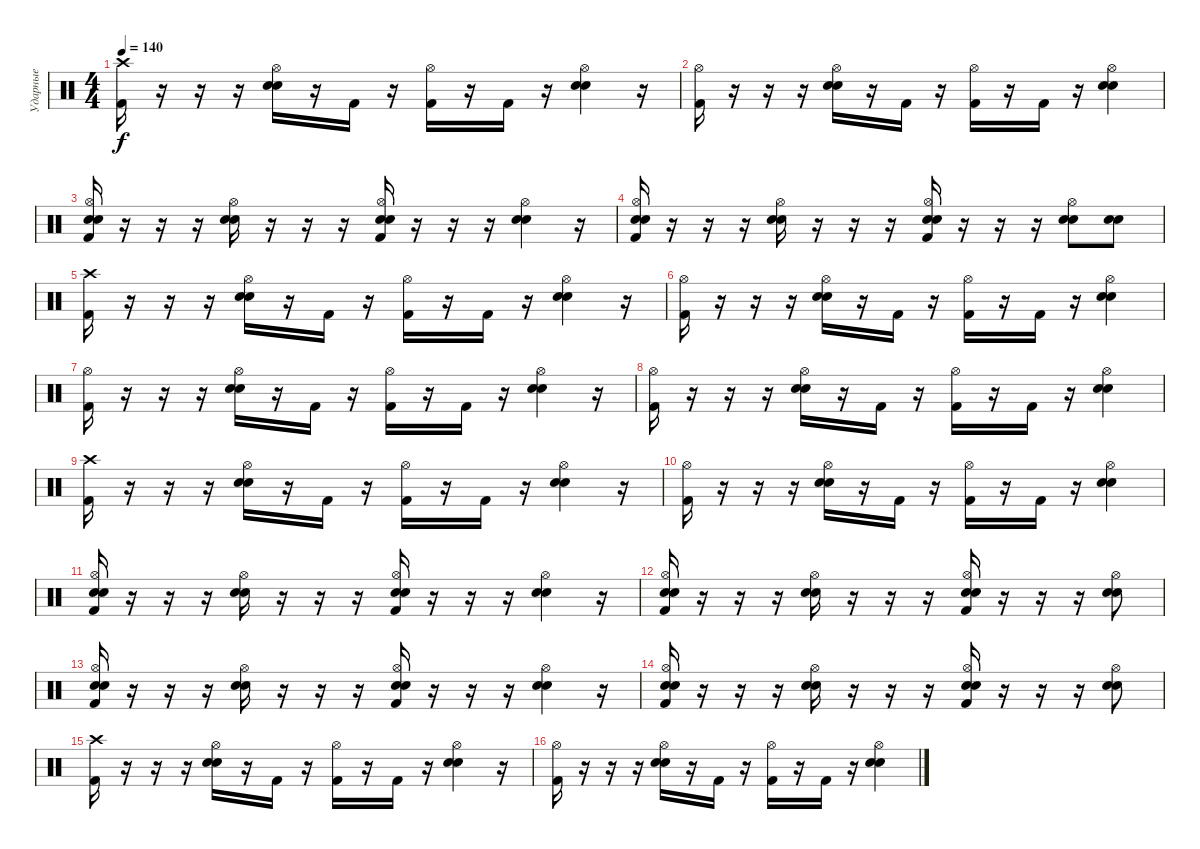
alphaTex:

\track ("Ударные" "Ударные") {instrument percussion}
\staff {score}
\articulation defaults
\ts (4 4)
\tempo 140
\clef neutral
\ks c
("Crash high (hit)" "Kick (hit) 2").16{dy f} r.16 r.16 r.16 ("Hi-Hat (open)" "Electric Snare (hit)" "Snare (hit) 2").16 r.16 "Kick (hit) 2".16 r.16 ("Hi-Hat (open)" "Kick (hit) 2").16 r.16 "Kick (hit) 2".16 r.16 ("Hi-Hat (open)" "Electric Snare (hit)" "Snare (hit) 2").4 r.16 |
("Hi-Hat (open)" "Kick (hit) 2").16 r.16 r.16 r.16 ("Hi-Hat (open)" "Electric Snare (hit)" "Snare (hit) 2").16 r.16 "Kick (hit) 2".16 r.16 ("Hi-Hat (open)" "Kick (hit) 2").16 r.16 "Kick (hit) 2".16 r.16 ("Hi-Hat (open)" "Electric Snare (hit)" "Snare (hit) 2").4 |
("Hi-Hat (open)" "Kick (hit) 2" "Electric Snare (hit)" "Snare (hit) 2").16 r.16 r.16 r.16 ("Hi-Hat (open)" "Electric Snare (hit)" "Snare (hit) 2").16 r.16 r.16 r.16 ("Hi-Hat (open)" "Kick (hit) 2" "Electric Snare (hit)" "Snare (hit) 2").16 r.16 r.16 r.16 ("Hi-Hat (open)" "Electric Snare (hit)" "Snare (hit) 2").4 r.16 |
("Hi-Hat (open)" "Kick (hit) 2" "Electric Snare (hit)" "Snare (hit) 2").16 r.16 r.16 r.16 ("Hi-Hat (open)" "Electric Snare (hit)" "Snare (hit) 2").16 r.16 r.16 r.16 ("Hi-Hat (open)" "Kick (hit) 2" "Electric Snare (hit)" "Snare (hit) 2").16 r.16 r.16 r.16 ("Hi-Hat (open)" "Electric Snare (hit)" "Snare (hit) 2").8 ("Electric Snare (hit)" "Snare (hit) 2").8 |
("Crash high (hit)" "Kick (hit) 2").16 r.16 r.16 r.16 ("Hi-Hat (open)" "Electric Snare (hit)" "Snare (hit) 2").16 r.16 "Kick (hit) 2".16 r.16 ("Hi-Hat (open)" "Kick (hit) 2").16 r.16 "Kick (hit) 2".16 r.16 ("Hi-Hat (open)" "Electric Snare (hit)" "Snare (hit) 2").4 r.16 |
("Hi-Hat (open)" "Kick (hit) 2").16 r.16 r.16 r.16 ("Hi-Hat (open)" "Electric Snare (hit)" "Snare (hit) 2").16 r.16 "Kick (hit) 2".16 r.16 ("Hi-Hat (open)" "Kick (hit) 2").16 r.16 "Kick (hit) 2".16 r.16 ("Hi-Hat (open)" "Electric Snare (hit)" "Snare (hit) 2").4 |
("Hi-Hat (open)" "Kick (hit) 2").16 r.16 r.16 r.16 ("Hi-Hat (open)" "Electric Snare (hit)" "Snare (hit) 2").16 r.16 "Kick (hit) 2".16 r.16 ("Hi-Hat (open)" "Kick (hit) 2").16 r.16 "Kick (hit) 2".16 r.16 ("Hi-Hat (open)" "Electric Snare (hit)" "Snare (hit) 2").4 r.16 |
("Hi-Hat (open)" "Kick (hit) 2").16 r.16 r.16 r.16 ("Hi-Hat (open)" "Electric Snare (hit)" "Snare (hit) 2").16 r.16 "Kick (hit) 2".16 r.16 ("Hi-Hat (open)" "Kick (hit) 2").16 r.16 "Kick (hit) 2".16 r.16 ("Hi-Hat (open)" "Electric Snare (hit)" "Snare (hit) 2").4 |
("Crash high (hit)" "Kick (hit) 2").16 r.16 r.16 r.16 ("Hi-Hat (open)" "Electric Snare (hit)" "Snare (hit) 2").16 r.16 "Kick (hit) 2".16 r.16 ("Hi-Hat (open)" "Kick (hit) 2").16 r.16 "Kick (hit) 2".16 r.16 ("Hi-Hat (open)" "Electric Snare (hit)" "Snare (hit) 2").4 r.16 |
("Hi-Hat (open)" "Kick (hit) 2").16 r.16 r.16 r.16 ("Hi-Hat (open)" "Electric Snare (hit)" "Snare (hit) 2").16 r.16 "Kick (hit) 2".16 r.16 ("Hi-Hat (open)" "Kick (hit) 2").16 r.16 "Kick (hit) 2".16 r.16 ("Hi-Hat (open)" "Electric Snare (hit)" "Snare (hit) 2").4 |
("Hi-Hat (open)" "Kick (hit) 2" "Electric Snare (hit)" "Snare (hit) 2").16 r.16 r.16 r.16 ("Hi-Hat (open)" "Electric Snare (hit)" "Snare (hit) 2").16 r.16 r.16 r.16 ("Hi-Hat (open)" "Kick (hit) 2" "Electric Snare (hit)" "Snare (hit) 2").16 r.16 r.16 r.16 ("Hi-Hat (open)" "Electric Snare (hit)" "Snare (hit) 2").4 r.16 |
("Hi-Hat (open)" "Kick (hit) 2" "Electric Snare (hit)" "Snare (hit) 2").16 r.16 r.16 r.16 ("Hi-Hat (open)" "Electric Snare (hit)" "Snare (hit) 2").16 r.16 r.16 r.16 ("Hi-Hat (open)" "Kick (hit) 2" "Electric Snare (hit)" "Snare (hit) 2").16 r.16 r.16 r.16 ("Hi-Hat (open)" "Electric Snare (hit)" "Snare (hit) 2").8 |
("Hi-Hat (open)" "Kick (hit) 2" "Electric Snare (hit)" "Snare (hit) 2").16 r.16 r.16 r.16 ("Hi-Hat (open)" "Electric Snare (hit)" "Snare (hit) 2").16 r.16 r.16 r.16 ("Hi-Hat (open)" "Kick (hit) 2" "Electric Snare (hit)" "Snare (hit) 2").16 r.16 r.16 r.16 ("Hi-Hat (open)" "Electric Snare (hit)" "Snare (hit) 2").4 r.16 |
("Hi-Hat (open)" "Kick (hit) 2" "Electric Snare (hit)" "Snare (hit) 2").16 r.16 r.16 r.16 ("Hi-Hat (open)" "Electric Snare (hit)" "Snare (hit) 2").16 r.16 r.16 r.16 ("Hi-Hat (open)" "Kick (hit) 2" "Electric Snare (hit)" "Snare (hit) 2").16 r.16 r.16 r.16 ("Hi-Hat (open)" "Electric Snare (hit)" "Snare (hit) 2").8 |
("Crash high (hit)" "Kick (hit) 2").16 r.16 r.16 r.16 ("Hi-Hat (open)" "Electric Snare (hit)" "Snare (hit) 2").16 r.16 "Kick (hit) 2".16 r.16 ("Hi-Hat (open)" "Kick (hit) 2").16 r.16 "Kick (hit) 2".16 r.16 ("Hi-Hat (open)" "Electric Snare (hit)" "Snare (hit) 2").4 r.16 |
("Hi-Hat (open)" "Kick (hit) 2").16 r.16 r.16 r.16 ("Hi-Hat (open)" "Electric Snare (hit)" "Snare (hit) 2").16 r.16 "Kick (hit) 2".16 r.16 ("Hi-Hat (open)" "Kick (hit) 2").16 r.16 "Kick (hit) 2".16 r.16 ("Hi-Hat (open)" "Electric Snare (hit)" "Snare (hit) 2").4
